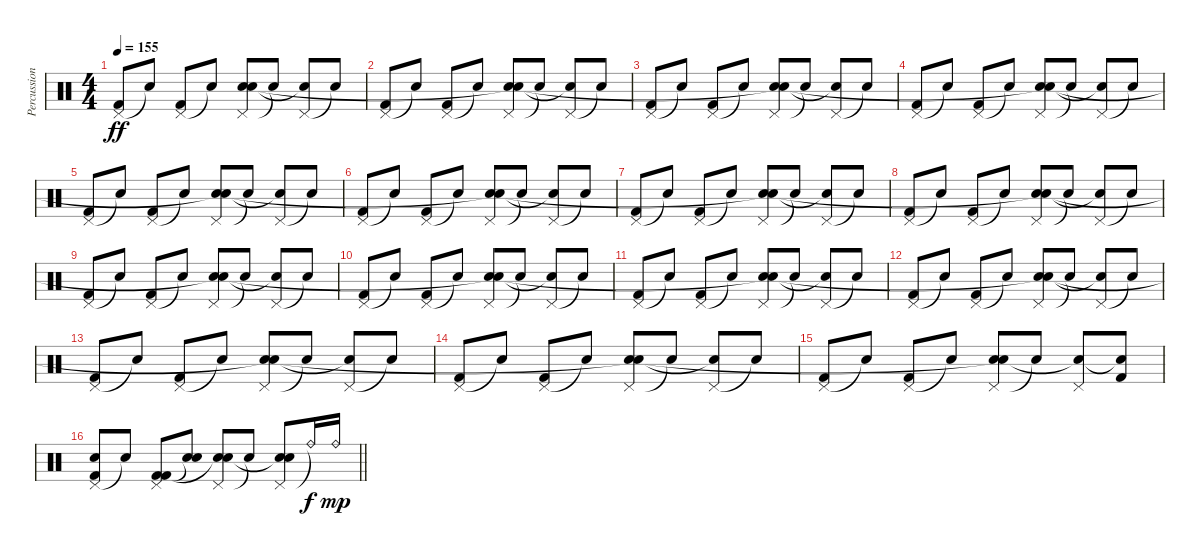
\track ("Percussion" "Percussion") {instrument percussion}
\staff {score}
\articulation defaults
\ts (4 4)
\tempo 155
\clef neutral
\ks c
("Pedal Hi-Hat (hit)" "Kick (hit) 2").8{dy ff} "Snare (hit)"{t}.8 ("Pedal Hi-Hat (hit)" "Kick (hit) 2").8 "Snare (hit)"{t}.8 ("Pedal Hi-Hat (hit)" "Snare (hit) 2" "Snare (hit)"{t}).8 "Snare (hit)"{t}.8 ("Pedal Hi-Hat (hit)" "Snare (hit)"{t}).8 "Snare (hit)"{t}.8 |
("Pedal Hi-Hat (hit)" "Kick (hit) 2").8 "Snare (hit)"{t}.8 ("Pedal Hi-Hat (hit)" "Kick (hit) 2").8 "Snare (hit)"{t}.8 ("Pedal Hi-Hat (hit)" "Snare (hit) 2" "Snare (hit)"{t}).8 "Snare (hit)"{t}.8 ("Pedal Hi-Hat (hit)" "Snare (hit)"{t}).8 "Snare (hit)"{t}.8 |
("Pedal Hi-Hat (hit)" "Kick (hit) 2").8 "Snare (hit)"{t}.8 ("Pedal Hi-Hat (hit)" "Kick (hit) 2").8 "Snare (hit)"{t}.8 ("Pedal Hi-Hat (hit)" "Snare (hit) 2" "Snare (hit)"{t}).8 "Snare (hit)"{t}.8 ("Pedal Hi-Hat (hit)" "Snare (hit)"{t}).8 "Snare (hit)"{t}.8 |
("Pedal Hi-Hat (hit)" "Kick (hit) 2").8 "Snare (hit)"{t}.8 ("Pedal Hi-Hat (hit)" "Kick (hit) 2").8 "Snare (hit)"{t}.8 ("Pedal Hi-Hat (hit)" "Snare (hit) 2" "Snare (hit)"{t}).8 "Snare (hit)"{t}.8 ("Pedal Hi-Hat (hit)" "Snare (hit)"{t}).8 "Snare (hit)"{t}.8 |
("Pedal Hi-Hat (hit)" "Kick (hit) 2").8 "Snare (hit)"{t}.8 ("Pedal Hi-Hat (hit)" "Kick (hit) 2").8 "Snare (hit)"{t}.8 ("Pedal Hi-Hat (hit)" "Snare (hit) 2" "Snare (hit)"{t}).8 "Snare (hit)"{t}.8 ("Pedal Hi-Hat (hit)" "Snare (hit)"{t}).8 "Snare (hit)"{t}.8 |
("Pedal Hi-Hat (hit)" "Kick (hit) 2").8 "Snare (hit)"{t}.8 ("Pedal Hi-Hat (hit)" "Kick (hit) 2").8 "Snare (hit)"{t}.8 ("Pedal Hi-Hat (hit)" "Snare (hit) 2" "Snare (hit)"{t}).8 "Snare (hit)"{t}.8 ("Pedal Hi-Hat (hit)" "Snare (hit)"{t}).8 "Snare (hit)"{t}.8 |
("Pedal Hi-Hat (hit)" "Kick (hit) 2").8 "Snare (hit)"{t}.8 ("Pedal Hi-Hat (hit)" "Kick (hit) 2").8 "Snare (hit)"{t}.8 ("Pedal Hi-Hat (hit)" "Snare (hit) 2" "Snare (hit)"{t}).8 "Snare (hit)"{t}.8 ("Pedal Hi-Hat (hit)" "Snare (hit)"{t}).8 "Snare (hit)"{t}.8 |
("Pedal Hi-Hat (hit)" "Kick (hit) 2").8 "Snare (hit)"{t}.8 ("Pedal Hi-Hat (hit)" "Kick (hit) 2").8 "Snare (hit)"{t}.8 ("Pedal Hi-Hat (hit)" "Snare (hit) 2" "Snare (hit)"{t}).8 "Snare (hit)"{t}.8 ("Pedal Hi-Hat (hit)" "Snare (hit)"{t}).8 "Snare (hit)"{t}.8 |
("Pedal Hi-Hat (hit)" "Kick (hit) 2").8 "Snare (hit)"{t}.8 ("Pedal Hi-Hat (hit)" "Kick (hit) 2").8 "Snare (hit)"{t}.8 ("Pedal Hi-Hat (hit)" "Snare (hit) 2" "Snare (hit)"{t}).8 "Snare (hit)"{t}.8 ("Pedal Hi-Hat (hit)" "Snare (hit)"{t}).8 "Snare (hit)"{t}.8 |
("Pedal Hi-Hat (hit)" "Kick (hit) 2").8 "Snare (hit)"{t}.8 ("Pedal Hi-Hat (hit)" "Kick (hit) 2").8 "Snare (hit)"{t}.8 ("Pedal Hi-Hat (hit)" "Snare (hit) 2" "Snare (hit)"{t}).8 "Snare (hit)"{t}.8 ("Pedal Hi-Hat (hit)" "Snare (hit)"{t}).8 "Snare (hit)"{t}.8 |
("Pedal Hi-Hat (hit)" "Kick (hit) 2").8 "Snare (hit)"{t}.8 ("Pedal Hi-Hat (hit)" "Kick (hit) 2").8 "Snare (hit)"{t}.8 ("Pedal Hi-Hat (hit)" "Snare (hit) 2" "Snare (hit)"{t}).8 "Snare (hit)"{t}.8 ("Pedal Hi-Hat (hit)" "Snare (hit)"{t}).8 "Snare (hit)"{t}.8 |
("Pedal Hi-Hat (hit)" "Kick (hit) 2").8 "Snare (hit)"{t}.8 ("Pedal Hi-Hat (hit)" "Kick (hit) 2").8 "Snare (hit)"{t}.8 ("Pedal Hi-Hat (hit)" "Snare (hit) 2" "Snare (hit)"{t}).8 "Snare (hit)"{t}.8 ("Pedal Hi-Hat (hit)" "Snare (hit)"{t}).8 "Snare (hit)"{t}.8 |
("Pedal Hi-Hat (hit)" "Kick (hit) 2").8 "Snare (hit)"{t}.8 ("Pedal Hi-Hat (hit)" "Kick (hit) 2").8 "Snare (hit)"{t}.8 ("Pedal Hi-Hat (hit)" "Snare (hit) 2" "Snare (hit)"{t}).8 "Snare (hit)"{t}.8 ("Pedal Hi-Hat (hit)" "Snare (hit)"{t}).8 "Snare (hit)"{t}.8 |
("Pedal Hi-Hat (hit)" "Kick (hit) 2").8 "Snare (hit)"{t}.8 ("Pedal Hi-Hat (hit)" "Kick (hit) 2").8 "Snare (hit)"{t}.8 ("Pedal Hi-Hat (hit)" "Snare (hit) 2" "Snare (hit)"{t}).8 "Snare (hit)"{t}.8 ("Pedal Hi-Hat (hit)" "Snare (hit)"{t}).8 "Snare (hit)"{t}.8 |
("Pedal Hi-Hat (hit)" "Kick (hit) 2").8 "Snare (hit)"{t}.8 ("Pedal Hi-Hat (hit)" "Kick (hit) 2").8 "Snare (hit)"{t}.8 ("Pedal Hi-Hat (hit)" "Snare (hit) 2" "Snare (hit)"{t}).8 "Snare (hit)"{t}.8 ("Pedal Hi-Hat (hit)" "Snare (hit)"{t}).8 ("Kick (hit) 2" "Snare (hit)"{t}).8 |
\barLineRight lightlight
("Pedal Hi-Hat (hit)" "Snare (hit) 2" "Kick (hit) 2").8 "Snare (hit)"{t}.8 ("Pedal Hi-Hat (hit)" "Kick (hit) 2" "Kick (hit) 2").8 ("Snare (hit) 2" "Snare (hit)"{t}).8 ("Pedal Hi-Hat (hit)" "Snare (hit) 2" "Snare (hit)"{t}).8 "Snare (hit)"{t}.8 ("Pedal Hi-Hat (hit)" "Snare (hit) 2" "Snare (hit)"{t}).8 "Ride (bell)"{t}.16{dy f} "Ride (bell)".16{dy mp}
